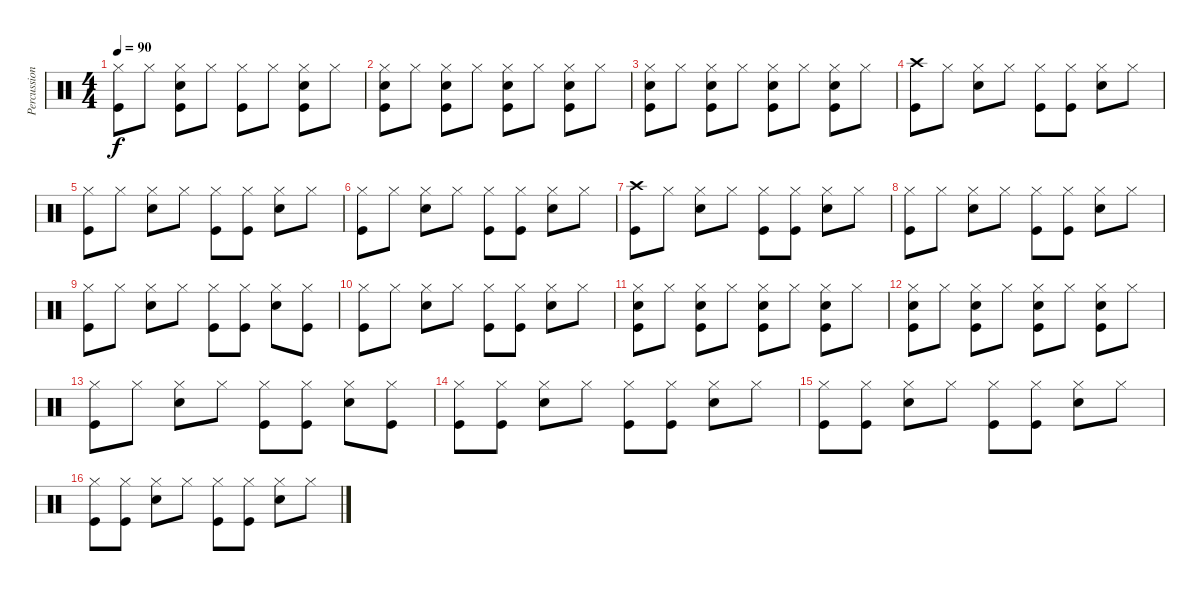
\track ("Percussion" "Percussion") {instrument percussion}
\staff {score}
\articulation defaults
\ts (4 4)
\tempo 90
\clef neutral
\ks c
("Hi-Hat (closed)" "Kick (hit)").8{dy f} "Hi-Hat (closed)".8 ("Hi-Hat (closed)" "Snare (hit) 2" "Kick (hit)").8 "Hi-Hat (closed)".8 ("Hi-Hat (closed)" "Kick (hit)").8 "Hi-Hat (closed)".8 ("Hi-Hat (closed)" "Snare (hit) 2" "Kick (hit)").8 "Hi-Hat (closed)".8 |
("Hi-Hat (closed)" "Snare (hit) 2" "Kick (hit)").8 "Hi-Hat (closed)".8 ("Hi-Hat (closed)" "Snare (hit) 2" "Kick (hit)").8 "Hi-Hat (closed)".8 ("Hi-Hat (closed)" "Snare (hit) 2" "Kick (hit)").8 "Hi-Hat (closed)".8 ("Hi-Hat (closed)" "Snare (hit) 2" "Kick (hit)").8 "Hi-Hat (closed)".8 |
("Hi-Hat (closed)" "Snare (hit) 2" "Kick (hit)").8 "Hi-Hat (closed)".8 ("Hi-Hat (closed)" "Snare (hit) 2" "Kick (hit)").8 "Hi-Hat (closed)".8 ("Hi-Hat (closed)" "Snare (hit) 2" "Kick (hit)").8 "Hi-Hat (closed)".8 ("Hi-Hat (closed)" "Snare (hit) 2" "Kick (hit)").8 "Hi-Hat (closed)".8 |
("Crash high (hit)" "Kick (hit)").8 "Hi-Hat (closed)".8 ("Hi-Hat (closed)" "Snare (hit) 2").8 "Hi-Hat (closed)".8 ("Hi-Hat (closed)" "Kick (hit)").8 ("Hi-Hat (closed)" "Kick (hit)").8 ("Hi-Hat (closed)" "Snare (hit) 2").8 "Hi-Hat (closed)".8 |
("Hi-Hat (closed)" "Kick (hit)").8 "Hi-Hat (closed)".8 ("Hi-Hat (closed)" "Snare (hit) 2").8 "Hi-Hat (closed)".8 ("Hi-Hat (closed)" "Kick (hit)").8 ("Hi-Hat (closed)" "Kick (hit)").8 ("Hi-Hat (closed)" "Snare (hit) 2").8 "Hi-Hat (closed)".8 |
("Hi-Hat (closed)" "Kick (hit)").8 "Hi-Hat (closed)".8 ("Hi-Hat (closed)" "Snare (hit) 2").8 "Hi-Hat (closed)".8 ("Hi-Hat (closed)" "Kick (hit)").8 ("Hi-Hat (closed)" "Kick (hit)").8 ("Hi-Hat (closed)" "Snare (hit) 2").8 "Hi-Hat (closed)".8 |
("Crash high (hit)" "Kick (hit)").8 "Hi-Hat (closed)".8 ("Hi-Hat (closed)" "Snare (hit) 2").8 "Hi-Hat (closed)".8 ("Hi-Hat (closed)" "Kick (hit)").8 ("Hi-Hat (closed)" "Kick (hit)").8 ("Hi-Hat (closed)" "Snare (hit) 2").8 "Hi-Hat (closed)".8 |
("Hi-Hat (closed)" "Kick (hit)").8 "Hi-Hat (closed)".8 ("Hi-Hat (closed)" "Snare (hit) 2").8 "Hi-Hat (closed)".8 ("Hi-Hat (closed)" "Kick (hit)").8 ("Hi-Hat (closed)" "Kick (hit)").8 ("Hi-Hat (closed)" "Snare (hit) 2").8 "Hi-Hat (closed)".8 |
("Hi-Hat (closed)" "Kick (hit)").8 "Hi-Hat (closed)".8 ("Hi-Hat (closed)" "Snare (hit) 2").8 "Hi-Hat (closed)".8 ("Hi-Hat (closed)" "Kick (hit)").8 ("Hi-Hat (closed)" "Kick (hit)").8 ("Hi-Hat (closed)" "Snare (hit) 2").8 ("Hi-Hat (closed)" "Kick (hit)").8 |
("Hi-Hat (closed)" "Kick (hit)").8 "Hi-Hat (closed)".8 ("Hi-Hat (closed)" "Snare (hit) 2").8 "Hi-Hat (closed)".8 ("Hi-Hat (closed)" "Kick (hit)").8 ("Hi-Hat (closed)" "Kick (hit)").8 ("Hi-Hat (closed)" "Snare (hit) 2").8 "Hi-Hat (closed)".8 |
("Hi-Hat (closed)" "Snare (hit) 2" "Kick (hit)").8 "Hi-Hat (closed)".8 ("Hi-Hat (closed)" "Snare (hit) 2" "Kick (hit)").8 "Hi-Hat (closed)".8 ("Hi-Hat (closed)" "Snare (hit) 2" "Kick (hit)").8 "Hi-Hat (closed)".8 ("Hi-Hat (closed)" "Snare (hit) 2" "Kick (hit)").8 "Hi-Hat (closed)".8 |
("Hi-Hat (closed)" "Snare (hit) 2" "Kick (hit)").8 "Hi-Hat (closed)".8 ("Hi-Hat (closed)" "Snare (hit) 2" "Kick (hit)").8 "Hi-Hat (closed)".8 ("Hi-Hat (closed)" "Snare (hit) 2" "Kick (hit)").8 "Hi-Hat (closed)".8 ("Hi-Hat (closed)" "Snare (hit) 2" "Kick (hit)").8 "Hi-Hat (closed)".8 |
("Hi-Hat (closed)" "Kick (hit)").8 "Hi-Hat (closed)".8 ("Hi-Hat (closed)" "Snare (hit) 2").8 "Hi-Hat (closed)".8 ("Hi-Hat (closed)" "Kick (hit)").8 ("Hi-Hat (closed)" "Kick (hit)").8 ("Hi-Hat (closed)" "Snare (hit) 2").8 ("Hi-Hat (closed)" "Kick (hit)").8 |
("Hi-Hat (closed)" "Kick (hit)").8 ("Hi-Hat (closed)" "Kick (hit)").8 ("Hi-Hat (closed)" "Snare (hit) 2").8 "Hi-Hat (closed)".8 ("Hi-Hat (closed)" "Kick (hit)").8 ("Hi-Hat (closed)" "Kick (hit)").8 ("Hi-Hat (closed)" "Snare (hit) 2").8 "Hi-Hat (closed)".8 |
("Hi-Hat (closed)" "Kick (hit)").8 ("Hi-Hat (closed)" "Kick (hit)").8 ("Hi-Hat (closed)" "Snare (hit) 2").8 "Hi-Hat (closed)".8 ("Hi-Hat (closed)" "Kick (hit)").8 ("Hi-Hat (closed)" "Kick (hit)").8 ("Hi-Hat (closed)" "Snare (hit) 2").8 "Hi-Hat (closed)".8 |
("Hi-Hat (closed)" "Kick (hit)").8 ("Hi-Hat (closed)" "Kick (hit)").8 ("Hi-Hat (closed)" "Snare (hit) 2").8 "Hi-Hat (closed)".8 ("Hi-Hat (closed)" "Kick (hit)").8 ("Hi-Hat (closed)" "Kick (hit)").8 ("Hi-Hat (closed)" "Snare (hit) 2").8 "Hi-Hat (closed)".8
